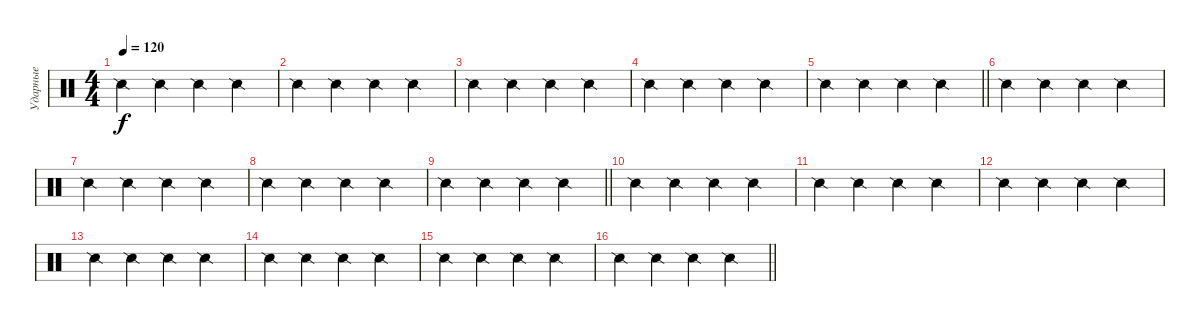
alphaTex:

\track ("Ударные" "Ударные") {instrument percussion}
\staff {score}
\articulation defaults
\ts (4 4)
\tempo 120
\clef neutral
\ks c "Snare (side stick) 2".4{dy f} "Snare (side stick) 2".4 "Snare (side stick) 2".4 "Snare (side stick) 2".4
|
"Snare (side stick) 2".4 "Snare (side stick) 2".4 "Snare (side stick) 2".4 "Snare (side stick) 2".4 |
"Snare (side stick) 2".4 "Snare (side stick) 2".4 "Snare (side stick) 2".4 "Snare (side stick) 2".4 |
"Snare (side stick) 2".4 "Snare (side stick) 2".4 "Snare (side stick) 2".4 "Snare (side stick) 2".4 |
\barLineRight lightlight "Snare (side stick) 2".4 "Snare (side stick) 2".4 "Snare (side stick) 2".4 "Snare (side stick) 2".4
|
"Snare (side stick) 2".4 "Snare (side stick) 2".4 "Snare (side stick) 2".4 "Snare (side stick) 2".4 |
"Snare (side stick) 2".4 "Snare (side stick) 2".4 "Snare (side stick) 2".4 "Snare (side stick) 2".4 |
"Snare (side stick) 2".4 "Snare (side stick) 2".4 "Snare (side stick) 2".4 "Snare (side stick) 2".4 |
\barLineRight lightlight "Snare (side stick) 2".4 "Snare (side stick) 2".4 "Snare (side stick) 2".4 "Snare (side stick) 2".4
|
"Snare (side stick) 2".4 "Snare (side stick) 2".4 "Snare (side stick) 2".4 "Snare (side stick) 2".4 |
"Snare (side stick) 2".4 "Snare (side stick) 2".4 "Snare (side stick) 2".4 "Snare (side stick) 2".4 |
"Snare (side stick) 2".4 "Snare (side stick) 2".4 "Snare (side stick) 2".4 "Snare (side stick) 2".4 |
"Snare (side stick) 2".4 "Snare (side stick) 2".4 "Snare (side stick) 2".4 "Snare (side stick) 2".4 |
"Snare (side stick) 2".4 "Snare (side stick) 2".4 "Snare (side stick) 2".4 "Snare (side stick) 2".4 |
"Snare (side stick) 2".4 "Snare (side stick) 2".4 "Snare (side stick) 2".4 "Snare (side stick) 2".4 |
\barLineRight lightlight "Snare (side stick) 2".4 "Snare (side stick) 2".4 "Snare (side stick) 2".4 "Snare (side stick) 2".4
